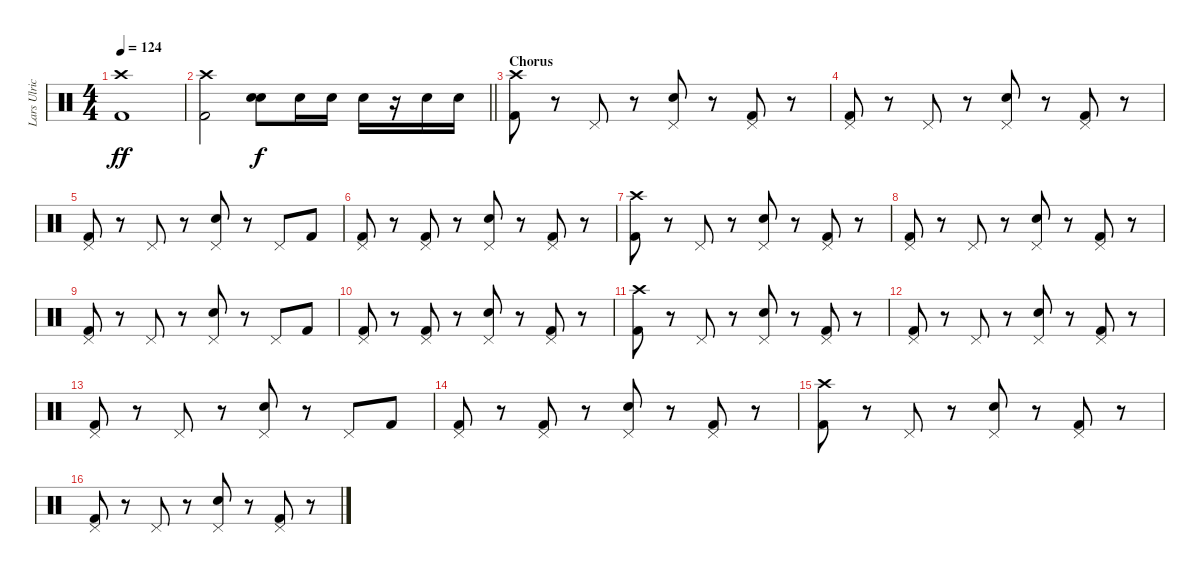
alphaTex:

\track ("Lars Ulrich" "Lars Ulric") {instrument percussion}
\staff {score}
\articulation defaults
\ts (4 4)
\tempo 124
\clef neutral
\ks c
("Crash high (hit)" "Kick (hit) 2").1{dy ff} |
\barLineRight lightlight
("Crash high (hit)" "Kick (hit) 2").2 ("Electric Snare (hit)" "Electric Snare (hit)").8{bd 240 dy f} "Electric Snare (hit)".16 "Electric Snare (hit)".16 "Electric Snare (hit)".16 r.16 "Electric Snare (hit)".16 "Electric Snare (hit)".16 |
\section ("" "Chorus")
("Crash high (hit)" "Kick (hit) 2").8 r.8 "Pedal Hi-Hat (hit)".8 r.8 ("Pedal Hi-Hat (hit)" "Electric Snare (hit)").8 r.8 ("Pedal Hi-Hat (hit)" "Kick (hit) 2").8 r.8 |
("Pedal Hi-Hat (hit)" "Kick (hit) 2").8 r.8 "Pedal Hi-Hat (hit)".8 r.8 ("Pedal Hi-Hat (hit)" "Electric Snare (hit)").8 r.8 ("Pedal Hi-Hat (hit)" "Kick (hit) 2").8 r.8 |
("Pedal Hi-Hat (hit)" "Kick (hit) 2").8 r.8 "Pedal Hi-Hat (hit)".8 r.8 ("Pedal Hi-Hat (hit)" "Electric Snare (hit)").8 r.8 "Pedal Hi-Hat (hit)".8 "Kick (hit) 2".8 |
("Pedal Hi-Hat (hit)" "Kick (hit) 2").8 r.8 ("Pedal Hi-Hat (hit)" "Kick (hit) 2").8 r.8 ("Pedal Hi-Hat (hit)" "Electric Snare (hit)").8 r.8 ("Pedal Hi-Hat (hit)" "Kick (hit) 2").8 r.8 |
("Crash high (hit)" "Kick (hit) 2").8 r.8 "Pedal Hi-Hat (hit)".8 r.8 ("Pedal Hi-Hat (hit)" "Electric Snare (hit)").8 r.8 ("Pedal Hi-Hat (hit)" "Kick (hit) 2").8 r.8 |
("Pedal Hi-Hat (hit)" "Kick (hit) 2").8 r.8 "Pedal Hi-Hat (hit)".8 r.8 ("Pedal Hi-Hat (hit)" "Electric Snare (hit)").8 r.8 ("Pedal Hi-Hat (hit)" "Kick (hit) 2").8 r.8 |
("Pedal Hi-Hat (hit)" "Kick (hit) 2").8 r.8 "Pedal Hi-Hat (hit)".8 r.8 ("Pedal Hi-Hat (hit)" "Electric Snare (hit)").8 r.8 "Pedal Hi-Hat (hit)".8 "Kick (hit) 2".8 |
("Pedal Hi-Hat (hit)" "Kick (hit) 2").8 r.8 ("Pedal Hi-Hat (hit)" "Kick (hit) 2").8 r.8 ("Pedal Hi-Hat (hit)" "Electric Snare (hit)").8 r.8 ("Pedal Hi-Hat (hit)" "Kick (hit) 2").8 r.8 |
("Crash high (hit)" "Kick (hit) 2").8 r.8 "Pedal Hi-Hat (hit)".8 r.8 ("Pedal Hi-Hat (hit)" "Electric Snare (hit)").8 r.8 ("Pedal Hi-Hat (hit)" "Kick (hit) 2").8 r.8 |
("Pedal Hi-Hat (hit)" "Kick (hit) 2").8 r.8 "Pedal Hi-Hat (hit)".8 r.8 ("Pedal Hi-Hat (hit)" "Electric Snare (hit)").8 r.8 ("Pedal Hi-Hat (hit)" "Kick (hit) 2").8 r.8 |
("Pedal Hi-Hat (hit)" "Kick (hit) 2").8 r.8 "Pedal Hi-Hat (hit)".8 r.8 ("Pedal Hi-Hat (hit)" "Electric Snare (hit)").8 r.8 "Pedal Hi-Hat (hit)".8 "Kick (hit) 2".8 |
("Pedal Hi-Hat (hit)" "Kick (hit) 2").8 r.8 ("Pedal Hi-Hat (hit)" "Kick (hit) 2").8 r.8 ("Pedal Hi-Hat (hit)" "Electric Snare (hit)").8 r.8 ("Pedal Hi-Hat (hit)" "Kick (hit) 2").8 r.8 |
("Crash high (hit)" "Kick (hit) 2").8 r.8 "Pedal Hi-Hat (hit)".8 r.8 ("Pedal Hi-Hat (hit)" "Electric Snare (hit)").8 r.8 ("Pedal Hi-Hat (hit)" "Kick (hit) 2").8 r.8 |
("Pedal Hi-Hat (hit)" "Kick (hit) 2").8 r.8 "Pedal Hi-Hat (hit)".8 r.8 ("Pedal Hi-Hat (hit)" "Electric Snare (hit)").8 r.8 ("Pedal Hi-Hat (hit)" "Kick (hit) 2").8 r.8
